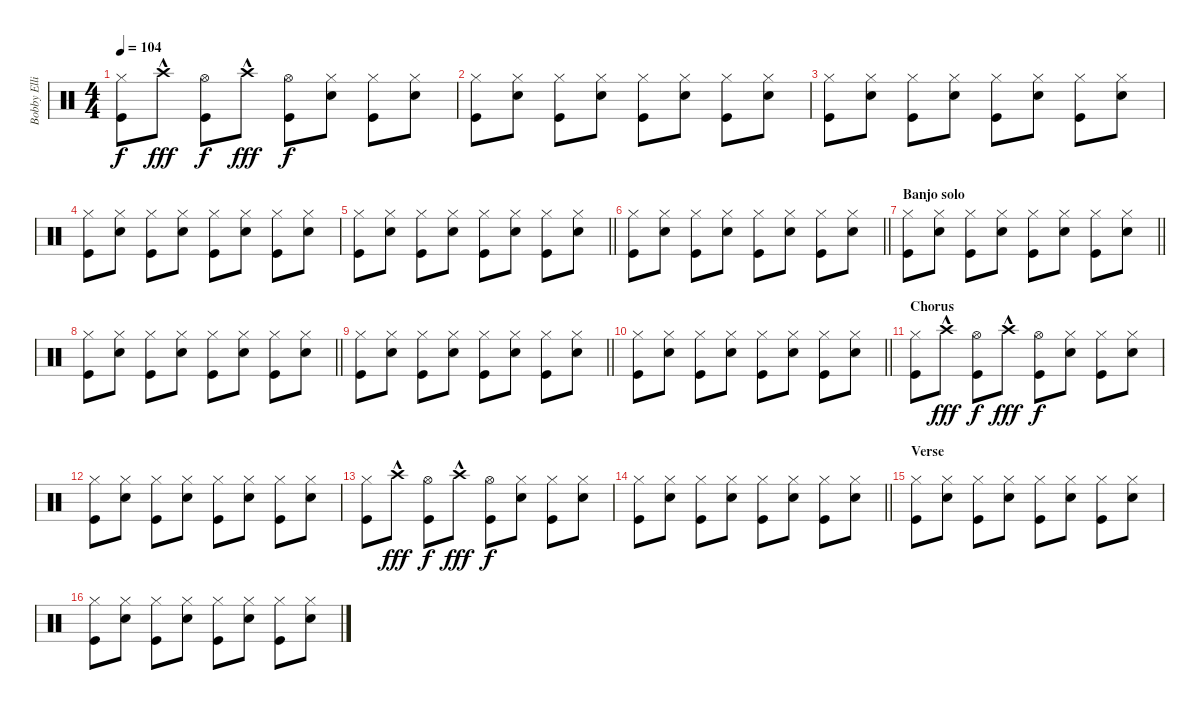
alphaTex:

\track ("Bobby Elliott" "Bobby Elli") {instrument percussion}
\staff {score}
\articulation defaults
\ts (4 4)
\tempo 104
\clef neutral
\ks c
("Hi-Hat (closed)" "Kick (hit)").8{dy f} "Crash high (hit)"{hac}.8{dy fff} ("Hi-Hat (open)" "Kick (hit)").8{dy f} "Crash high (hit)"{hac}.8{dy fff} ("Hi-Hat (open)" "Kick (hit)").8{dy f} ("Hi-Hat (closed)" "Snare (hit) 2").8 ("Hi-Hat (closed)" "Kick (hit)").8 ("Hi-Hat (closed)" "Snare (hit) 2").8 |
("Hi-Hat (closed)" "Kick (hit)").8 ("Hi-Hat (closed)" "Snare (hit) 2").8 ("Hi-Hat (closed)" "Kick (hit)").8 ("Hi-Hat (closed)" "Snare (hit) 2").8 ("Hi-Hat (closed)" "Kick (hit)").8 ("Hi-Hat (closed)" "Snare (hit) 2").8 ("Hi-Hat (closed)" "Kick (hit)").8 ("Hi-Hat (closed)" "Snare (hit) 2").8 |
("Hi-Hat (closed)" "Kick (hit)").8 ("Hi-Hat (closed)" "Snare (hit) 2").8 ("Hi-Hat (closed)" "Kick (hit)").8 ("Hi-Hat (closed)" "Snare (hit) 2").8 ("Hi-Hat (closed)" "Kick (hit)").8 ("Hi-Hat (closed)" "Snare (hit) 2").8 ("Hi-Hat (closed)" "Kick (hit)").8 ("Hi-Hat (closed)" "Snare (hit) 2").8 |
("Hi-Hat (closed)" "Kick (hit)").8 ("Hi-Hat (closed)" "Snare (hit) 2").8 ("Hi-Hat (closed)" "Kick (hit)").8 ("Hi-Hat (closed)" "Snare (hit) 2").8 ("Hi-Hat (closed)" "Kick (hit)").8 ("Hi-Hat (closed)" "Snare (hit) 2").8 ("Hi-Hat (closed)" "Kick (hit)").8 ("Hi-Hat (closed)" "Snare (hit) 2").8 |
\barLineRight lightlight
("Hi-Hat (closed)" "Kick (hit)").8 ("Hi-Hat (closed)" "Snare (hit) 2").8 ("Hi-Hat (closed)" "Kick (hit)").8 ("Hi-Hat (closed)" "Snare (hit) 2").8 ("Hi-Hat (closed)" "Kick (hit)").8 ("Hi-Hat (closed)" "Snare (hit) 2").8 ("Hi-Hat (closed)" "Kick (hit)").8 ("Hi-Hat (closed)" "Snare (hit) 2").8 |
\barLineRight lightlight
("Hi-Hat (closed)" "Kick (hit)").8 ("Hi-Hat (closed)" "Snare (hit) 2").8 ("Hi-Hat (closed)" "Kick (hit)").8 ("Hi-Hat (closed)" "Snare (hit) 2").8 ("Hi-Hat (closed)" "Kick (hit)").8 ("Hi-Hat (closed)" "Snare (hit) 2").8 ("Hi-Hat (closed)" "Kick (hit)").8 ("Hi-Hat (closed)" "Snare (hit) 2").8 |
\section ("" "Banjo solo")
\barLineRight lightlight
("Hi-Hat (closed)" "Kick (hit)").8 ("Hi-Hat (closed)" "Snare (hit) 2").8 ("Hi-Hat (closed)" "Kick (hit)").8 ("Hi-Hat (closed)" "Snare (hit) 2").8 ("Hi-Hat (closed)" "Kick (hit)").8 ("Hi-Hat (closed)" "Snare (hit) 2").8 ("Hi-Hat (closed)" "Kick (hit)").8 ("Hi-Hat (closed)" "Snare (hit) 2").8 |
\barLineRight lightlight
("Hi-Hat (closed)" "Kick (hit)").8 ("Hi-Hat (closed)" "Snare (hit) 2").8 ("Hi-Hat (closed)" "Kick (hit)").8 ("Hi-Hat (closed)" "Snare (hit) 2").8 ("Hi-Hat (closed)" "Kick (hit)").8 ("Hi-Hat (closed)" "Snare (hit) 2").8 ("Hi-Hat (closed)" "Kick (hit)").8 ("Hi-Hat (closed)" "Snare (hit) 2").8 |
\barLineRight lightlight
("Hi-Hat (closed)" "Kick (hit)").8 ("Hi-Hat (closed)" "Snare (hit) 2").8 ("Hi-Hat (closed)" "Kick (hit)").8 ("Hi-Hat (closed)" "Snare (hit) 2").8 ("Hi-Hat (closed)" "Kick (hit)").8 ("Hi-Hat (closed)" "Snare (hit) 2").8 ("Hi-Hat (closed)" "Kick (hit)").8 ("Hi-Hat (closed)" "Snare (hit) 2").8 |
\barLineRight lightlight
("Hi-Hat (closed)" "Kick (hit)").8 ("Hi-Hat (closed)" "Snare (hit) 2").8 ("Hi-Hat (closed)" "Kick (hit)").8 ("Hi-Hat (closed)" "Snare (hit) 2").8 ("Hi-Hat (closed)" "Kick (hit)").8 ("Hi-Hat (closed)" "Snare (hit) 2").8 ("Hi-Hat (closed)" "Kick (hit)").8 ("Hi-Hat (closed)" "Snare (hit) 2").8 |
\section ("" "Chorus")
("Hi-Hat (closed)" "Kick (hit)").8 "Crash high (hit)"{hac}.8{dy fff} ("Hi-Hat (open)" "Kick (hit)").8{dy f} "Crash high (hit)"{hac}.8{dy fff} ("Hi-Hat (open)" "Kick (hit)").8{dy f} ("Hi-Hat (closed)" "Snare (hit) 2").8 ("Hi-Hat (closed)" "Kick (hit)").8 ("Hi-Hat (closed)" "Snare (hit) 2").8 |
("Hi-Hat (closed)" "Kick (hit)").8 ("Hi-Hat (closed)" "Snare (hit) 2").8 ("Hi-Hat (closed)" "Kick (hit)").8 ("Hi-Hat (closed)" "Snare (hit) 2").8 ("Hi-Hat (closed)" "Kick (hit)").8 ("Hi-Hat (closed)" "Snare (hit) 2").8 ("Hi-Hat (closed)" "Kick (hit)").8 ("Hi-Hat (closed)" "Snare (hit) 2").8 |
("Hi-Hat (closed)" "Kick (hit)").8 "Crash high (hit)"{hac}.8{dy fff} ("Hi-Hat (open)" "Kick (hit)").8{dy f} "Crash high (hit)"{hac}.8{dy fff} ("Hi-Hat (open)" "Kick (hit)").8{dy f} ("Hi-Hat (closed)" "Snare (hit) 2").8 ("Hi-Hat (closed)" "Kick (hit)").8 ("Hi-Hat (closed)" "Snare (hit) 2").8 |
\barLineRight lightlight
("Hi-Hat (closed)" "Kick (hit)").8 ("Hi-Hat (closed)" "Snare (hit) 2").8 ("Hi-Hat (closed)" "Kick (hit)").8 ("Hi-Hat (closed)" "Snare (hit) 2").8 ("Hi-Hat (closed)" "Kick (hit)").8 ("Hi-Hat (closed)" "Snare (hit) 2").8 ("Hi-Hat (closed)" "Kick (hit)").8 ("Hi-Hat (closed)" "Snare (hit) 2").8 |
\section ("" "Verse")
("Hi-Hat (closed)" "Kick (hit)").8 ("Hi-Hat (closed)" "Snare (hit) 2").8 ("Hi-Hat (closed)" "Kick (hit)").8 ("Hi-Hat (closed)" "Snare (hit) 2").8 ("Hi-Hat (closed)" "Kick (hit)").8 ("Hi-Hat (closed)" "Snare (hit) 2").8 ("Hi-Hat (closed)" "Kick (hit)").8 ("Hi-Hat (closed)" "Snare (hit) 2").8 |
("Hi-Hat (closed)" "Kick (hit)").8 ("Hi-Hat (closed)" "Snare (hit) 2").8 ("Hi-Hat (closed)" "Kick (hit)").8 ("Hi-Hat (closed)" "Snare (hit) 2").8 ("Hi-Hat (closed)" "Kick (hit)").8 ("Hi-Hat (closed)" "Snare (hit) 2").8 ("Hi-Hat (closed)" "Kick (hit)").8 ("Hi-Hat (closed)" "Snare (hit) 2").8
